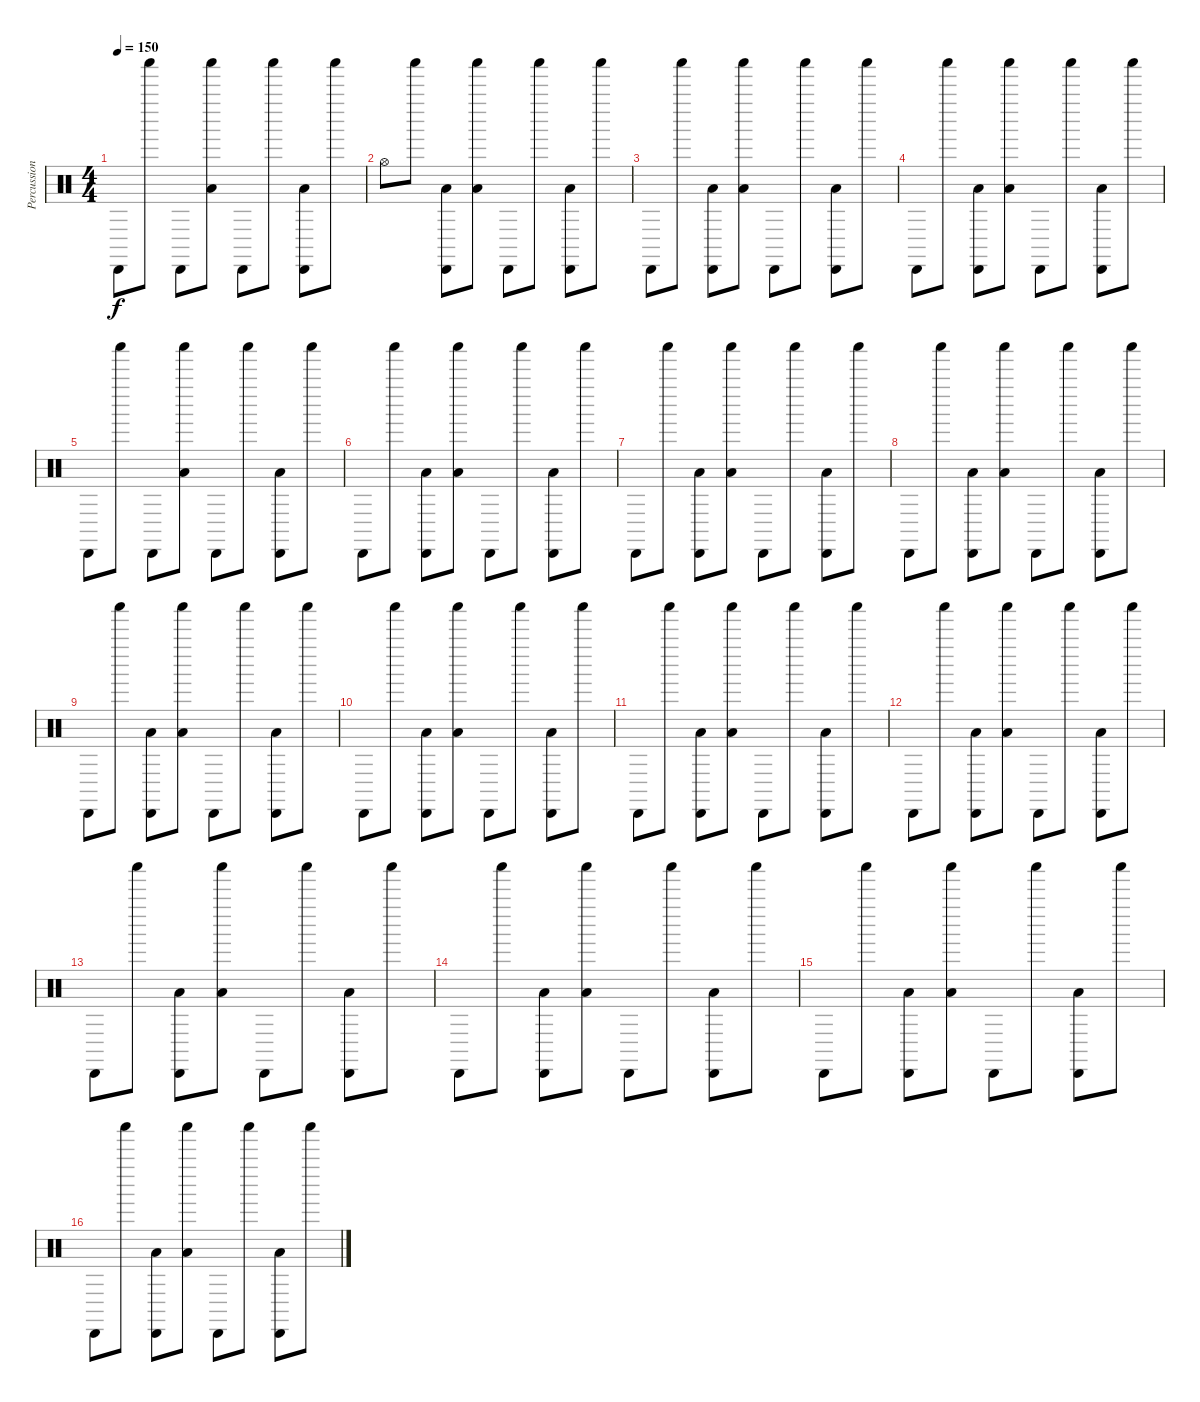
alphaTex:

\track ("Percussion" "Percussion") {instrument percussion}
\staff
\articulation defaults
\ts (4 4)
\tempo 150
\clef neutral
\ks c "Cabasa (hit)".8{dy f} "Shaker (hit)".8 "Cabasa (hit)".8
("Shaker (hit)" "Low Floor Tom (hit)").8 "Cabasa (hit)".8 "Shaker (hit)".8 ("Cabasa (hit)" "Low Floor Tom (hit)").8 "Shaker (hit)".8 |
"Hi-Hat (open)".8 "Shaker (hit)".8 ("Cabasa (hit)" "Low Floor Tom (hit)").8 ("Shaker (hit)" "Low Floor Tom (hit)").8 "Cabasa (hit)".8 "Shaker (hit)".8 ("Cabasa (hit)" "Low Floor Tom (hit)").8 "Shaker (hit)".8 |
"Cabasa (hit)".8 "Shaker (hit)".8 ("Cabasa (hit)" "Low Floor Tom (hit)").8 ("Shaker (hit)" "Low Floor Tom (hit)").8 "Cabasa (hit)".8 "Shaker (hit)".8 ("Cabasa (hit)" "Low Floor Tom (hit)").8 "Shaker (hit)".8 |
"Cabasa (hit)".8 "Shaker (hit)".8 ("Cabasa (hit)" "Low Floor Tom (hit)").8 ("Shaker (hit)" "Low Floor Tom (hit)").8 "Cabasa (hit)".8 "Shaker (hit)".8 ("Cabasa (hit)" "Low Floor Tom (hit)").8 "Shaker (hit)".8 |
"Cabasa (hit)".8 "Shaker (hit)".8 "Cabasa (hit)".8 ("Shaker (hit)" "Low Floor Tom (hit)").8 "Cabasa (hit)".8 "Shaker (hit)".8 ("Cabasa (hit)" "Low Floor Tom (hit)").8 "Shaker (hit)".8 |
"Cabasa (hit)".8 "Shaker (hit)".8 ("Cabasa (hit)" "Low Floor Tom (hit)").8 ("Shaker (hit)" "Low Floor Tom (hit)").8 "Cabasa (hit)".8 "Shaker (hit)".8 ("Cabasa (hit)" "Low Floor Tom (hit)").8 "Shaker (hit)".8 |
"Cabasa (hit)".8 "Shaker (hit)".8 ("Cabasa (hit)" "Low Floor Tom (hit)").8 ("Shaker (hit)" "Low Floor Tom (hit)").8 "Cabasa (hit)".8 "Shaker (hit)".8 ("Cabasa (hit)" "Low Floor Tom (hit)").8 "Shaker (hit)".8 |
"Cabasa (hit)".8 "Shaker (hit)".8 ("Cabasa (hit)" "Low Floor Tom (hit)").8 ("Shaker (hit)" "Low Floor Tom (hit)").8 "Cabasa (hit)".8 "Shaker (hit)".8 ("Cabasa (hit)" "Low Floor Tom (hit)").8 "Shaker (hit)".8 |
"Cabasa (hit)".8 "Shaker (hit)".8 ("Cabasa (hit)" "Low Floor Tom (hit)").8 ("Shaker (hit)" "Low Floor Tom (hit)").8 "Cabasa (hit)".8 "Shaker (hit)".8 ("Cabasa (hit)" "Low Floor Tom (hit)").8 "Shaker (hit)".8 |
"Cabasa (hit)".8 "Shaker (hit)".8 ("Cabasa (hit)" "Low Floor Tom (hit)").8 ("Shaker (hit)" "Low Floor Tom (hit)").8 "Cabasa (hit)".8 "Shaker (hit)".8 ("Cabasa (hit)" "Low Floor Tom (hit)").8 "Shaker (hit)".8 |
"Cabasa (hit)".8 "Shaker (hit)".8 ("Cabasa (hit)" "Low Floor Tom (hit)").8 ("Shaker (hit)" "Low Floor Tom (hit)").8 "Cabasa (hit)".8 "Shaker (hit)".8 ("Cabasa (hit)" "Low Floor Tom (hit)").8 "Shaker (hit)".8 |
"Cabasa (hit)".8 "Shaker (hit)".8 ("Cabasa (hit)" "Low Floor Tom (hit)").8 ("Shaker (hit)" "Low Floor Tom (hit)").8 "Cabasa (hit)".8 "Shaker (hit)".8 ("Cabasa (hit)" "Low Floor Tom (hit)").8 "Shaker (hit)".8 |
"Cabasa (hit)".8 "Shaker (hit)".8 ("Cabasa (hit)" "Low Floor Tom (hit)").8 ("Shaker (hit)" "Low Floor Tom (hit)").8 "Cabasa (hit)".8 "Shaker (hit)".8 ("Cabasa (hit)" "Low Floor Tom (hit)").8 "Shaker (hit)".8 |
"Cabasa (hit)".8 "Shaker (hit)".8 ("Cabasa (hit)" "Low Floor Tom (hit)").8 ("Shaker (hit)" "Low Floor Tom (hit)").8 "Cabasa (hit)".8 "Shaker (hit)".8 ("Cabasa (hit)" "Low Floor Tom (hit)").8 "Shaker (hit)".8 |
"Cabasa (hit)".8 "Shaker (hit)".8 ("Cabasa (hit)" "Low Floor Tom (hit)").8 ("Shaker (hit)" "Low Floor Tom (hit)").8 "Cabasa (hit)".8 "Shaker (hit)".8 ("Cabasa (hit)" "Low Floor Tom (hit)").8 "Shaker (hit)".8 |
"Cabasa (hit)".8 "Shaker (hit)".8 ("Cabasa (hit)" "Low Floor Tom (hit)").8 ("Shaker (hit)" "Low Floor Tom (hit)").8 "Cabasa (hit)".8 "Shaker (hit)".8 ("Cabasa (hit)" "Low Floor Tom (hit)").8 "Shaker (hit)".8
